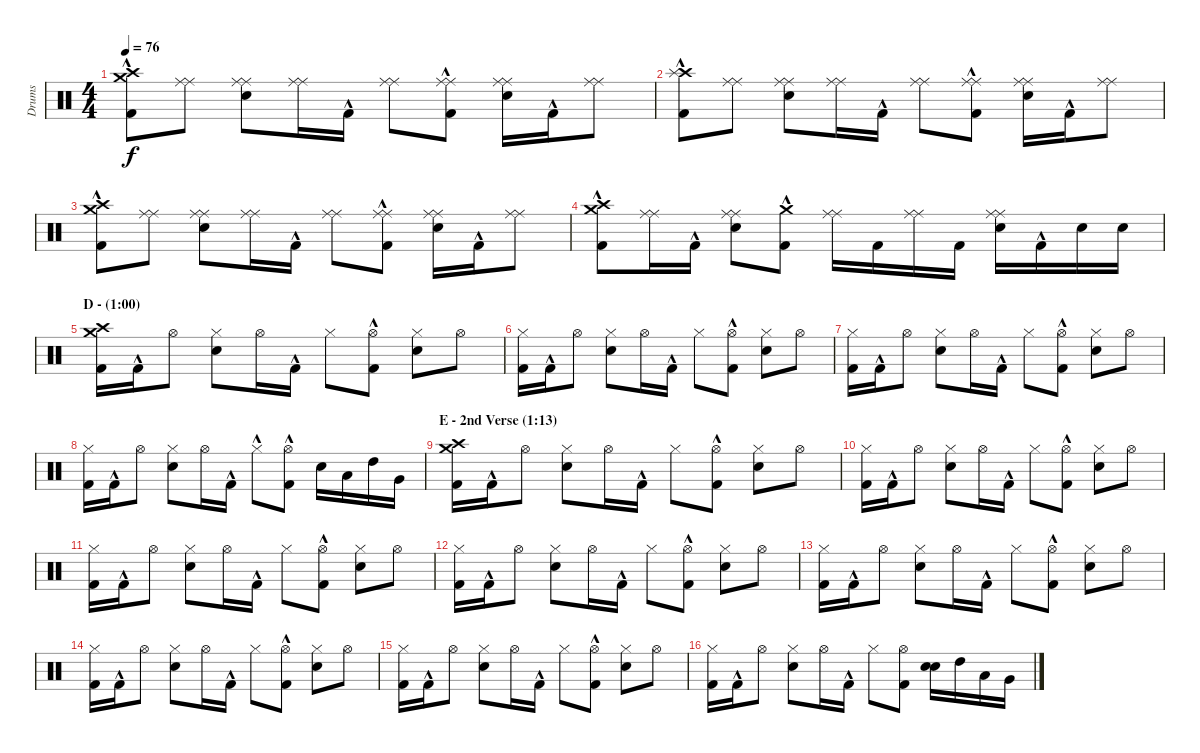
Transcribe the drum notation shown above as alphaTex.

\track ("Drums" "Drums") {instrument percussion}
\staff {score}
\articulation defaults
\ts (4 4)
\tempo 76
\clef neutral
\ks c
("Kick (hit) 2"{hac} "Crash high (hit)" "Crash medium (hit)").8{dy f} ("Ride (middle)" "Ride (middle)").8 ("Snare (hit) 2" "Ride (middle)" "Ride (middle)").8 ("Ride (middle)" "Ride (middle)").16 "Kick (hit) 2"{hac}.16 ("Ride (middle)" "Ride (middle)").8 ("Kick (hit) 2"{hac} "Ride (middle)" "Ride (middle)").8 ("Snare (hit) 2" "Ride (middle)" "Ride (middle)").16 "Kick (hit) 2"{hac}.16 ("Ride (middle)" "Ride (middle)").8 |
("Kick (hit) 2"{hac} "Crash high (hit)" "Splash (hit)").8 ("Ride (middle)" "Ride (middle)").8 ("Snare (hit) 2" "Ride (middle)" "Ride (middle)").8 ("Ride (middle)" "Ride (middle)").16 "Kick (hit) 2"{hac}.16 ("Ride (middle)" "Ride (middle)").8 ("Kick (hit) 2"{hac} "Ride (middle)" "Ride (middle)").8 ("Snare (hit) 2" "Ride (middle)" "Ride (middle)").16 "Kick (hit) 2"{hac}.16 ("Ride (middle)" "Ride (middle)").8 |
("Kick (hit) 2"{hac} "Crash high (hit)" "Crash medium (hit)").8 ("Ride (middle)" "Ride (middle)").8 ("Snare (hit) 2" "Ride (middle)" "Ride (middle)").8 ("Ride (middle)" "Ride (middle)").16 "Kick (hit) 2"{hac}.16 ("Ride (middle)" "Ride (middle)").8 ("Kick (hit) 2"{hac} "Ride (middle)" "Ride (middle)").8 ("Snare (hit) 2" "Ride (middle)" "Ride (middle)").16 "Kick (hit) 2"{hac}.16 ("Ride (middle)" "Ride (middle)").8 |
("Kick (hit) 2"{hac} "Crash high (hit)" "Crash medium (hit)"{hac}).8 ("Ride (middle)" "Ride (middle)").16 "Kick (hit) 2"{hac}.16 ("Snare (hit) 2" "Ride (middle)" "Ride (middle)").8 ("Kick (hit) 2"{hac} "Crash medium (hit)").8 ("Ride (middle)" "Ride (middle)").16 "Kick (hit) 2".16 ("Ride (middle)" "Ride (middle)").16 "Kick (hit) 2".16 ("Snare (hit) 2" "Ride (middle)" "Ride (middle)").16 "Kick (hit) 2"{hac}.16 "Snare (hit) 2".16 "Snare (hit) 2".16 |
\section ("" "D - (1:00)")
("Kick (hit) 2" "Crash high (hit)" "Crash medium (hit)").16 "Kick (hit) 2"{hac}.16 "Hi-Hat (open)".8 ("Snare (hit) 2" "Hi-Hat (closed)").8 "Hi-Hat (open)".16 "Kick (hit) 2"{hac}.16 "Hi-Hat (closed)".8 ("Kick (hit) 2"{hac} "Hi-Hat (open)").8 ("Snare (hit) 2" "Hi-Hat (closed)").8 "Hi-Hat (open)".8 |
("Kick (hit) 2" "Hi-Hat (closed)").16 "Kick (hit) 2"{hac}.16 "Hi-Hat (open)".8 ("Snare (hit) 2" "Hi-Hat (closed)").8 "Hi-Hat (open)".16 "Kick (hit) 2"{hac}.16 "Hi-Hat (closed)".8 ("Kick (hit) 2"{hac} "Hi-Hat (open)").8 ("Snare (hit) 2" "Hi-Hat (closed)").8 "Hi-Hat (open)".8 |
("Kick (hit) 2" "Hi-Hat (closed)").16 "Kick (hit) 2"{hac}.16 "Hi-Hat (open)".8 ("Snare (hit) 2" "Hi-Hat (closed)").8 "Hi-Hat (open)".16 "Kick (hit) 2"{hac}.16 "Hi-Hat (closed)".8 ("Kick (hit) 2"{hac} "Hi-Hat (open)").8 ("Snare (hit) 2" "Hi-Hat (closed)").8 "Hi-Hat (open)".8 |
("Kick (hit) 2" "Hi-Hat (closed)").16 "Kick (hit) 2"{hac}.16 "Hi-Hat (open)".8 ("Snare (hit) 2" "Hi-Hat (closed)").8 "Hi-Hat (open)".16 "Kick (hit) 2"{hac}.16 "Hi-Hat (closed)"{hac}.8 ("Kick (hit) 2"{hac} "Hi-Hat (open)").8 "Snare (hit) 2".16 "Low Tom (hit)".16 "High Tom (hit)".16 "Very Low Tom (hit)".16 |
\section ("" "E - 2nd Verse (1:13)")
("Kick (hit) 2" "Crash high (hit)" "Crash medium (hit)").16 "Kick (hit) 2"{hac}.16 "Hi-Hat (open)".8 ("Snare (hit) 2" "Hi-Hat (closed)").8 "Hi-Hat (open)".16 "Kick (hit) 2"{hac}.16 "Hi-Hat (closed)".8 ("Kick (hit) 2"{hac} "Hi-Hat (open)").8 ("Snare (hit) 2" "Hi-Hat (closed)").8 "Hi-Hat (open)".8 |
("Kick (hit) 2" "Hi-Hat (closed)").16 "Kick (hit) 2"{hac}.16 "Hi-Hat (open)".8 ("Snare (hit) 2" "Hi-Hat (closed)").8 "Hi-Hat (open)".16 "Kick (hit) 2"{hac}.16 "Hi-Hat (closed)".8 ("Kick (hit) 2"{hac} "Hi-Hat (open)").8 ("Snare (hit) 2" "Hi-Hat (closed)").8 "Hi-Hat (open)".8 |
("Kick (hit) 2" "Hi-Hat (closed)").16 "Kick (hit) 2"{hac}.16 "Hi-Hat (open)".8 ("Snare (hit) 2" "Hi-Hat (closed)").8 "Hi-Hat (open)".16 "Kick (hit) 2"{hac}.16 "Hi-Hat (closed)".8 ("Kick (hit) 2"{hac} "Hi-Hat (open)").8 ("Snare (hit) 2" "Hi-Hat (closed)").8 "Hi-Hat (open)".8 |
("Kick (hit) 2" "Hi-Hat (closed)").16 "Kick (hit) 2"{hac}.16 "Hi-Hat (open)".8 ("Snare (hit) 2" "Hi-Hat (closed)").8 "Hi-Hat (open)".16 "Kick (hit) 2"{hac}.16 "Hi-Hat (closed)".8 ("Kick (hit) 2"{hac} "Hi-Hat (open)").8 ("Snare (hit) 2" "Hi-Hat (closed)").8 "Hi-Hat (open)".8 |
("Kick (hit) 2" "Hi-Hat (closed)").16 "Kick (hit) 2"{hac}.16 "Hi-Hat (open)".8 ("Snare (hit) 2" "Hi-Hat (closed)").8 "Hi-Hat (open)".16 "Kick (hit) 2"{hac}.16 "Hi-Hat (closed)".8 ("Kick (hit) 2"{hac} "Hi-Hat (open)").8 ("Snare (hit) 2" "Hi-Hat (closed)").8 "Hi-Hat (open)".8 |
("Kick (hit) 2" "Hi-Hat (closed)").16 "Kick (hit) 2"{hac}.16 "Hi-Hat (open)".8 ("Snare (hit) 2" "Hi-Hat (closed)").8 "Hi-Hat (open)".16 "Kick (hit) 2"{hac}.16 "Hi-Hat (closed)".8 ("Kick (hit) 2"{hac} "Hi-Hat (open)").8 ("Snare (hit) 2" "Hi-Hat (closed)").8 "Hi-Hat (open)".8 |
("Kick (hit) 2" "Hi-Hat (closed)").16 "Kick (hit) 2"{hac}.16 "Hi-Hat (open)".8 ("Snare (hit) 2" "Hi-Hat (closed)").8 "Hi-Hat (open)".16 "Kick (hit) 2"{hac}.16 "Hi-Hat (closed)".8 ("Kick (hit) 2"{hac} "Hi-Hat (open)").8 ("Snare (hit) 2" "Hi-Hat (closed)").8 "Hi-Hat (open)".8 |
("Kick (hit) 2" "Hi-Hat (closed)").16 "Kick (hit) 2"{hac}.16 "Hi-Hat (open)".8 ("Snare (hit) 2" "Hi-Hat (closed)").8 "Hi-Hat (open)".16 "Kick (hit) 2"{hac}.16 "Hi-Hat (closed)".8 ("Kick (hit) 2" "Hi-Hat (open)").8 ("Electric Snare (hit)" "Snare (hit) 2").16 "High Tom (hit)".16 "Low Tom (hit)".16 "Very Low Tom (hit)".16
